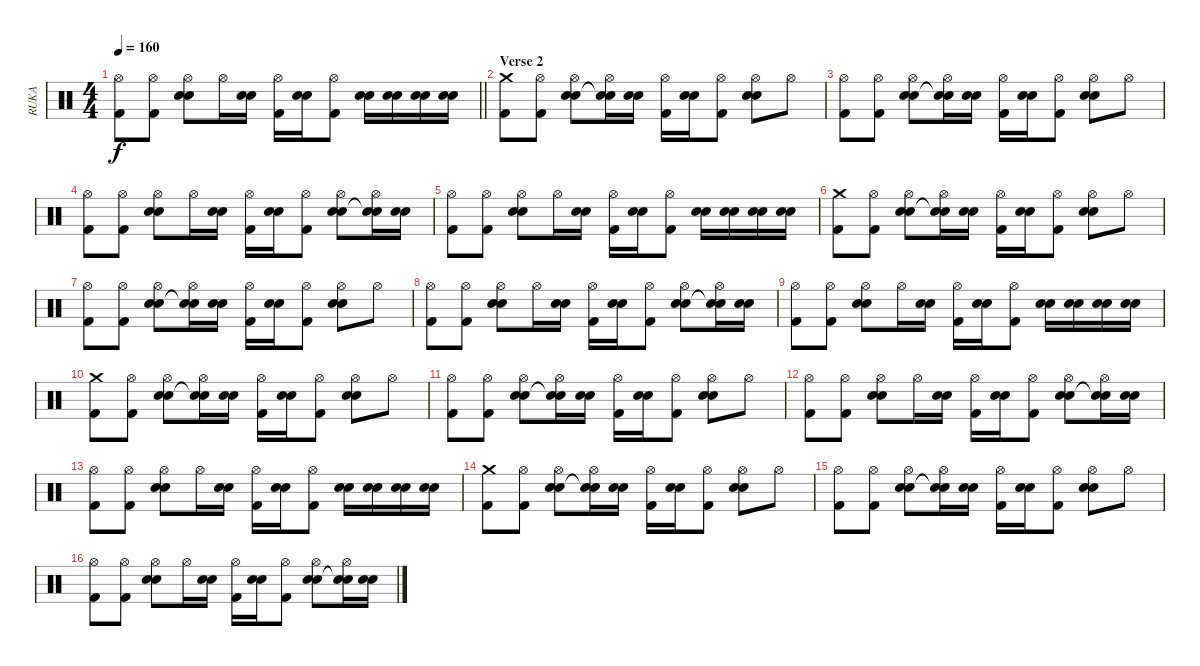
\track ("RUKA" "RUKA") {instrument percussion}
\staff {score}
\articulation defaults
\ts (4 4)
\tempo 160
\clef neutral
\barLineRight lightlight
\ks c
("Hi-Hat (open)" "Kick (hit) 2").8{dy f} ("Hi-Hat (open)" "Kick (hit) 2").8 ("Hi-Hat (open)" "Snare (hit) 2" "Electric Snare (hit)").8 "Hi-Hat (open)".16 ("Snare (hit) 2" "Electric Snare (hit)").16 ("Hi-Hat (open)" "Kick (hit) 2").16 ("Snare (hit) 2" "Electric Snare (hit)").16 ("Hi-Hat (open)" "Kick (hit) 2").8 ("Snare (hit) 2" "Electric Snare (hit)").16 ("Snare (hit) 2" "Electric Snare (hit)").16 ("Snare (hit) 2" "Electric Snare (hit)").16 ("Snare (hit) 2" "Electric Snare (hit)").16 |
\section ("" "Verse 2")
("Crash medium (hit)" "Kick (hit) 2").8 ("Hi-Hat (open)" "Kick (hit) 2").8 ("Hi-Hat (open)" "Snare (hit) 2" "Electric Snare (hit)").8 ("Hi-Hat (open)" "Snare (hit)"{t} "Snare (hit)"{t}).16 ("Snare (hit) 2" "Electric Snare (hit)").16 ("Hi-Hat (open)" "Kick (hit) 2").16 ("Snare (hit) 2" "Electric Snare (hit)").16 ("Hi-Hat (open)" "Kick (hit) 2").8 ("Hi-Hat (open)" "Snare (hit) 2" "Electric Snare (hit)").8 "Hi-Hat (open)".8 |
("Hi-Hat (open)" "Kick (hit) 2").8 ("Hi-Hat (open)" "Kick (hit) 2").8 ("Hi-Hat (open)" "Snare (hit) 2" "Electric Snare (hit)").8 ("Hi-Hat (open)" "Snare (hit)"{t} "Snare (hit)"{t}).16 ("Snare (hit) 2" "Electric Snare (hit)").16 ("Hi-Hat (open)" "Kick (hit) 2").16 ("Snare (hit) 2" "Electric Snare (hit)").16 ("Hi-Hat (open)" "Kick (hit) 2").8 ("Hi-Hat (open)" "Snare (hit) 2" "Electric Snare (hit)").8 "Hi-Hat (open)".8 |
("Hi-Hat (open)" "Kick (hit) 2").8 ("Hi-Hat (open)" "Kick (hit) 2").8 ("Hi-Hat (open)" "Snare (hit) 2" "Electric Snare (hit)").8 "Hi-Hat (open)".16 ("Snare (hit) 2" "Electric Snare (hit)").16 ("Hi-Hat (open)" "Kick (hit) 2").16 ("Snare (hit) 2" "Electric Snare (hit)").16 ("Hi-Hat (open)" "Kick (hit) 2").8 ("Hi-Hat (open)" "Snare (hit) 2" "Electric Snare (hit)").8 ("Hi-Hat (open)" "Snare (hit)"{t} "Snare (hit)"{t}).16 ("Snare (hit) 2" "Electric Snare (hit)").16 |
("Hi-Hat (open)" "Kick (hit) 2").8 ("Hi-Hat (open)" "Kick (hit) 2").8 ("Hi-Hat (open)" "Snare (hit) 2" "Electric Snare (hit)").8 "Hi-Hat (open)".16 ("Snare (hit) 2" "Electric Snare (hit)").16 ("Hi-Hat (open)" "Kick (hit) 2").16 ("Snare (hit) 2" "Electric Snare (hit)").16 ("Hi-Hat (open)" "Kick (hit) 2").8 ("Snare (hit) 2" "Electric Snare (hit)").16 ("Snare (hit) 2" "Electric Snare (hit)").16 ("Snare (hit) 2" "Electric Snare (hit)").16 ("Snare (hit) 2" "Electric Snare (hit)").16 |
("Crash medium (hit)" "Kick (hit) 2").8 ("Hi-Hat (open)" "Kick (hit) 2").8 ("Hi-Hat (open)" "Snare (hit) 2" "Electric Snare (hit)").8 ("Hi-Hat (open)" "Snare (hit)"{t} "Snare (hit)"{t}).16 ("Snare (hit) 2" "Electric Snare (hit)").16 ("Hi-Hat (open)" "Kick (hit) 2").16 ("Snare (hit) 2" "Electric Snare (hit)").16 ("Hi-Hat (open)" "Kick (hit) 2").8 ("Hi-Hat (open)" "Snare (hit) 2" "Electric Snare (hit)").8 "Hi-Hat (open)".8 |
("Hi-Hat (open)" "Kick (hit) 2").8 ("Hi-Hat (open)" "Kick (hit) 2").8 ("Hi-Hat (open)" "Snare (hit) 2" "Electric Snare (hit)").8 ("Hi-Hat (open)" "Snare (hit)"{t} "Snare (hit)"{t}).16 ("Snare (hit) 2" "Electric Snare (hit)").16 ("Hi-Hat (open)" "Kick (hit) 2").16 ("Snare (hit) 2" "Electric Snare (hit)").16 ("Hi-Hat (open)" "Kick (hit) 2").8 ("Hi-Hat (open)" "Snare (hit) 2" "Electric Snare (hit)").8 "Hi-Hat (open)".8 |
("Hi-Hat (open)" "Kick (hit) 2").8 ("Hi-Hat (open)" "Kick (hit) 2").8 ("Hi-Hat (open)" "Snare (hit) 2" "Electric Snare (hit)").8 "Hi-Hat (open)".16 ("Snare (hit) 2" "Electric Snare (hit)").16 ("Hi-Hat (open)" "Kick (hit) 2").16 ("Snare (hit) 2" "Electric Snare (hit)").16 ("Hi-Hat (open)" "Kick (hit) 2").8 ("Hi-Hat (open)" "Snare (hit) 2" "Electric Snare (hit)").8 ("Hi-Hat (open)" "Snare (hit)"{t} "Snare (hit)"{t}).16 ("Snare (hit) 2" "Electric Snare (hit)").16 |
("Hi-Hat (open)" "Kick (hit) 2").8 ("Hi-Hat (open)" "Kick (hit) 2").8 ("Hi-Hat (open)" "Snare (hit) 2" "Electric Snare (hit)").8 "Hi-Hat (open)".16 ("Snare (hit) 2" "Electric Snare (hit)").16 ("Hi-Hat (open)" "Kick (hit) 2").16 ("Snare (hit) 2" "Electric Snare (hit)").16 ("Hi-Hat (open)" "Kick (hit) 2").8 ("Snare (hit) 2" "Electric Snare (hit)").16 ("Snare (hit) 2" "Electric Snare (hit)").16 ("Snare (hit) 2" "Electric Snare (hit)").16 ("Snare (hit) 2" "Electric Snare (hit)").16 |
("Crash medium (hit)" "Kick (hit) 2").8 ("Hi-Hat (open)" "Kick (hit) 2").8 ("Hi-Hat (open)" "Snare (hit) 2" "Electric Snare (hit)").8 ("Hi-Hat (open)" "Snare (hit)"{t} "Snare (hit)"{t}).16 ("Snare (hit) 2" "Electric Snare (hit)").16 ("Hi-Hat (open)" "Kick (hit) 2").16 ("Snare (hit) 2" "Electric Snare (hit)").16 ("Hi-Hat (open)" "Kick (hit) 2").8 ("Hi-Hat (open)" "Snare (hit) 2" "Electric Snare (hit)").8 "Hi-Hat (open)".8 |
("Hi-Hat (open)" "Kick (hit) 2").8 ("Hi-Hat (open)" "Kick (hit) 2").8 ("Hi-Hat (open)" "Snare (hit) 2" "Electric Snare (hit)").8 ("Hi-Hat (open)" "Snare (hit)"{t} "Snare (hit)"{t}).16 ("Snare (hit) 2" "Electric Snare (hit)").16 ("Hi-Hat (open)" "Kick (hit) 2").16 ("Snare (hit) 2" "Electric Snare (hit)").16 ("Hi-Hat (open)" "Kick (hit) 2").8 ("Hi-Hat (open)" "Snare (hit) 2" "Electric Snare (hit)").8 "Hi-Hat (open)".8 |
("Hi-Hat (open)" "Kick (hit) 2").8 ("Hi-Hat (open)" "Kick (hit) 2").8 ("Hi-Hat (open)" "Snare (hit) 2" "Electric Snare (hit)").8 "Hi-Hat (open)".16 ("Snare (hit) 2" "Electric Snare (hit)").16 ("Hi-Hat (open)" "Kick (hit) 2").16 ("Snare (hit) 2" "Electric Snare (hit)").16 ("Hi-Hat (open)" "Kick (hit) 2").8 ("Hi-Hat (open)" "Snare (hit) 2" "Electric Snare (hit)").8 ("Hi-Hat (open)" "Snare (hit)"{t} "Snare (hit)"{t}).16 ("Snare (hit) 2" "Electric Snare (hit)").16 |
("Hi-Hat (open)" "Kick (hit) 2").8 ("Hi-Hat (open)" "Kick (hit) 2").8 ("Hi-Hat (open)" "Snare (hit) 2" "Electric Snare (hit)").8 "Hi-Hat (open)".16 ("Snare (hit) 2" "Electric Snare (hit)").16 ("Hi-Hat (open)" "Kick (hit) 2").16 ("Snare (hit) 2" "Electric Snare (hit)").16 ("Hi-Hat (open)" "Kick (hit) 2").8 ("Snare (hit) 2" "Electric Snare (hit)").16 ("Snare (hit) 2" "Electric Snare (hit)").16 ("Snare (hit) 2" "Electric Snare (hit)").16 ("Snare (hit) 2" "Electric Snare (hit)").16 |
("Crash medium (hit)" "Kick (hit) 2").8 ("Hi-Hat (open)" "Kick (hit) 2").8 ("Hi-Hat (open)" "Snare (hit) 2" "Electric Snare (hit)").8 ("Hi-Hat (open)" "Snare (hit)"{t} "Snare (hit)"{t}).16 ("Snare (hit) 2" "Electric Snare (hit)").16 ("Hi-Hat (open)" "Kick (hit) 2").16 ("Snare (hit) 2" "Electric Snare (hit)").16 ("Hi-Hat (open)" "Kick (hit) 2").8 ("Hi-Hat (open)" "Snare (hit) 2" "Electric Snare (hit)").8 "Hi-Hat (open)".8 |
("Hi-Hat (open)" "Kick (hit) 2").8 ("Hi-Hat (open)" "Kick (hit) 2").8 ("Hi-Hat (open)" "Snare (hit) 2" "Electric Snare (hit)").8 ("Hi-Hat (open)" "Snare (hit)"{t} "Snare (hit)"{t}).16 ("Snare (hit) 2" "Electric Snare (hit)").16 ("Hi-Hat (open)" "Kick (hit) 2").16 ("Snare (hit) 2" "Electric Snare (hit)").16 ("Hi-Hat (open)" "Kick (hit) 2").8 ("Hi-Hat (open)" "Snare (hit) 2" "Electric Snare (hit)").8 "Hi-Hat (open)".8 |
("Hi-Hat (open)" "Kick (hit) 2").8 ("Hi-Hat (open)" "Kick (hit) 2").8 ("Hi-Hat (open)" "Snare (hit) 2" "Electric Snare (hit)").8 "Hi-Hat (open)".16 ("Snare (hit) 2" "Electric Snare (hit)").16 ("Hi-Hat (open)" "Kick (hit) 2").16 ("Snare (hit) 2" "Electric Snare (hit)").16 ("Hi-Hat (open)" "Kick (hit) 2").8 ("Hi-Hat (open)" "Snare (hit) 2" "Electric Snare (hit)").8 ("Hi-Hat (open)" "Snare (hit)"{t} "Snare (hit)"{t}).16 ("Snare (hit) 2" "Electric Snare (hit)").16
